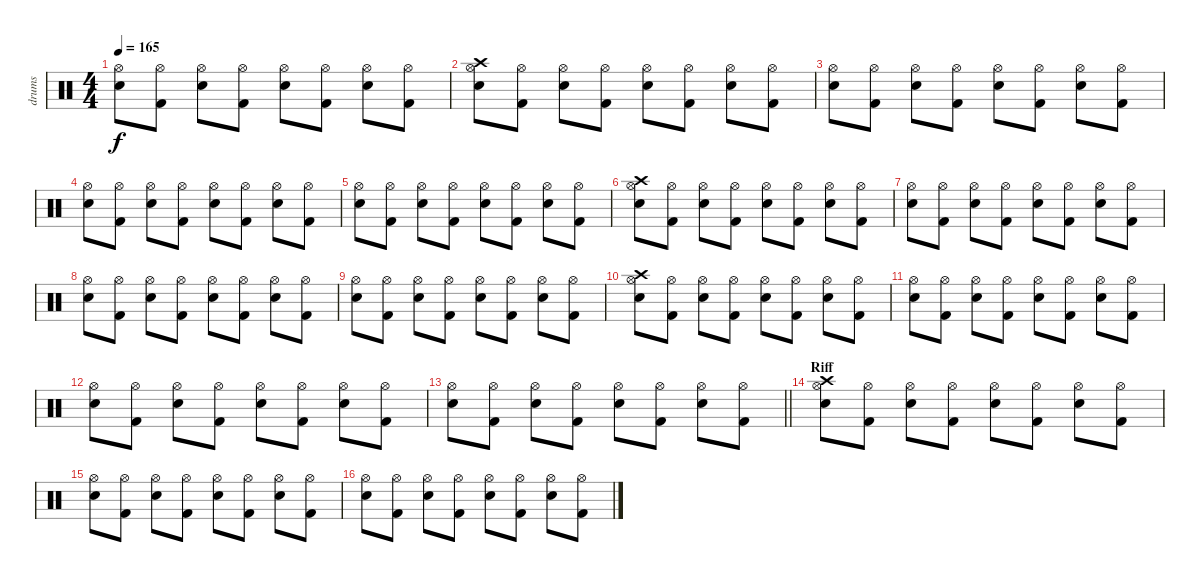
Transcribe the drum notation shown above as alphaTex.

\track ("drums" "drums") {instrument percussion}
\staff {score}
\articulation defaults
\ts (4 4)
\tempo 165
\clef neutral
\ks c
("Hi-Hat (open)" "Electric Snare (hit)").8{dy f} ("Hi-Hat (open)" "Kick (hit) 2").8 ("Hi-Hat (open)" "Electric Snare (hit)").8 ("Hi-Hat (open)" "Kick (hit) 2").8 ("Hi-Hat (open)" "Electric Snare (hit)").8 ("Hi-Hat (open)" "Kick (hit) 2").8 ("Hi-Hat (open)" "Electric Snare (hit)").8 ("Hi-Hat (open)" "Kick (hit) 2").8 |
("Crash high (hit)" "Hi-Hat (open)" "Electric Snare (hit)").8 ("Hi-Hat (open)" "Kick (hit) 2").8 ("Hi-Hat (open)" "Electric Snare (hit)").8 ("Hi-Hat (open)" "Kick (hit) 2").8 ("Hi-Hat (open)" "Electric Snare (hit)").8 ("Hi-Hat (open)" "Kick (hit) 2").8 ("Hi-Hat (open)" "Electric Snare (hit)").8 ("Hi-Hat (open)" "Kick (hit) 2").8 |
("Hi-Hat (open)" "Electric Snare (hit)").8 ("Hi-Hat (open)" "Kick (hit) 2").8 ("Hi-Hat (open)" "Electric Snare (hit)").8 ("Hi-Hat (open)" "Kick (hit) 2").8 ("Hi-Hat (open)" "Electric Snare (hit)").8 ("Hi-Hat (open)" "Kick (hit) 2").8 ("Hi-Hat (open)" "Electric Snare (hit)").8 ("Hi-Hat (open)" "Kick (hit) 2").8 |
("Hi-Hat (open)" "Electric Snare (hit)").8 ("Hi-Hat (open)" "Kick (hit) 2").8 ("Hi-Hat (open)" "Electric Snare (hit)").8 ("Hi-Hat (open)" "Kick (hit) 2").8 ("Hi-Hat (open)" "Electric Snare (hit)").8 ("Hi-Hat (open)" "Kick (hit) 2").8 ("Hi-Hat (open)" "Electric Snare (hit)").8 ("Hi-Hat (open)" "Kick (hit) 2").8 |
("Hi-Hat (open)" "Electric Snare (hit)").8 ("Hi-Hat (open)" "Kick (hit) 2").8 ("Hi-Hat (open)" "Electric Snare (hit)").8 ("Hi-Hat (open)" "Kick (hit) 2").8 ("Hi-Hat (open)" "Electric Snare (hit)").8 ("Hi-Hat (open)" "Kick (hit) 2").8 ("Hi-Hat (open)" "Electric Snare (hit)").8 ("Hi-Hat (open)" "Kick (hit) 2").8 |
("Crash high (hit)" "Hi-Hat (open)" "Electric Snare (hit)").8 ("Hi-Hat (open)" "Kick (hit) 2").8 ("Hi-Hat (open)" "Electric Snare (hit)").8 ("Hi-Hat (open)" "Kick (hit) 2").8 ("Hi-Hat (open)" "Electric Snare (hit)").8 ("Hi-Hat (open)" "Kick (hit) 2").8 ("Hi-Hat (open)" "Electric Snare (hit)").8 ("Hi-Hat (open)" "Kick (hit) 2").8 |
("Hi-Hat (open)" "Electric Snare (hit)").8 ("Hi-Hat (open)" "Kick (hit) 2").8 ("Hi-Hat (open)" "Electric Snare (hit)").8 ("Hi-Hat (open)" "Kick (hit) 2").8 ("Hi-Hat (open)" "Electric Snare (hit)").8 ("Hi-Hat (open)" "Kick (hit) 2").8 ("Hi-Hat (open)" "Electric Snare (hit)").8 ("Hi-Hat (open)" "Kick (hit) 2").8 |
("Hi-Hat (open)" "Electric Snare (hit)").8 ("Hi-Hat (open)" "Kick (hit) 2").8 ("Hi-Hat (open)" "Electric Snare (hit)").8 ("Hi-Hat (open)" "Kick (hit) 2").8 ("Hi-Hat (open)" "Electric Snare (hit)").8 ("Hi-Hat (open)" "Kick (hit) 2").8 ("Hi-Hat (open)" "Electric Snare (hit)").8 ("Hi-Hat (open)" "Kick (hit) 2").8 |
("Hi-Hat (open)" "Electric Snare (hit)").8 ("Hi-Hat (open)" "Kick (hit) 2").8 ("Hi-Hat (open)" "Electric Snare (hit)").8 ("Hi-Hat (open)" "Kick (hit) 2").8 ("Hi-Hat (open)" "Electric Snare (hit)").8 ("Hi-Hat (open)" "Kick (hit) 2").8 ("Hi-Hat (open)" "Electric Snare (hit)").8 ("Hi-Hat (open)" "Kick (hit) 2").8 |
("Crash high (hit)" "Hi-Hat (open)" "Electric Snare (hit)").8 ("Hi-Hat (open)" "Kick (hit) 2").8 ("Hi-Hat (open)" "Electric Snare (hit)").8 ("Hi-Hat (open)" "Kick (hit) 2").8 ("Hi-Hat (open)" "Electric Snare (hit)").8 ("Hi-Hat (open)" "Kick (hit) 2").8 ("Hi-Hat (open)" "Electric Snare (hit)").8 ("Hi-Hat (open)" "Kick (hit) 2").8 |
("Hi-Hat (open)" "Electric Snare (hit)").8 ("Hi-Hat (open)" "Kick (hit) 2").8 ("Hi-Hat (open)" "Electric Snare (hit)").8 ("Hi-Hat (open)" "Kick (hit) 2").8 ("Hi-Hat (open)" "Electric Snare (hit)").8 ("Hi-Hat (open)" "Kick (hit) 2").8 ("Hi-Hat (open)" "Electric Snare (hit)").8 ("Hi-Hat (open)" "Kick (hit) 2").8 |
("Hi-Hat (open)" "Electric Snare (hit)").8 ("Hi-Hat (open)" "Kick (hit) 2").8 ("Hi-Hat (open)" "Electric Snare (hit)").8 ("Hi-Hat (open)" "Kick (hit) 2").8 ("Hi-Hat (open)" "Electric Snare (hit)").8 ("Hi-Hat (open)" "Kick (hit) 2").8 ("Hi-Hat (open)" "Electric Snare (hit)").8 ("Hi-Hat (open)" "Kick (hit) 2").8 |
\barLineRight lightlight
("Hi-Hat (open)" "Electric Snare (hit)").8 ("Hi-Hat (open)" "Kick (hit) 2").8 ("Hi-Hat (open)" "Electric Snare (hit)").8 ("Hi-Hat (open)" "Kick (hit) 2").8 ("Hi-Hat (open)" "Electric Snare (hit)").8 ("Hi-Hat (open)" "Kick (hit) 2").8 ("Hi-Hat (open)" "Electric Snare (hit)").8 ("Hi-Hat (open)" "Kick (hit) 2").8 |
\section ("" "Riff")
("Crash high (hit)" "Hi-Hat (open)" "Electric Snare (hit)").8 ("Hi-Hat (open)" "Kick (hit) 2").8 ("Hi-Hat (open)" "Electric Snare (hit)").8 ("Hi-Hat (open)" "Kick (hit) 2").8 ("Hi-Hat (open)" "Electric Snare (hit)").8 ("Hi-Hat (open)" "Kick (hit) 2").8 ("Hi-Hat (open)" "Electric Snare (hit)").8 ("Hi-Hat (open)" "Kick (hit) 2").8 |
("Hi-Hat (open)" "Electric Snare (hit)").8 ("Hi-Hat (open)" "Kick (hit) 2").8 ("Hi-Hat (open)" "Electric Snare (hit)").8 ("Hi-Hat (open)" "Kick (hit) 2").8 ("Hi-Hat (open)" "Electric Snare (hit)").8 ("Hi-Hat (open)" "Kick (hit) 2").8 ("Hi-Hat (open)" "Electric Snare (hit)").8 ("Hi-Hat (open)" "Kick (hit) 2").8 |
("Hi-Hat (open)" "Electric Snare (hit)").8 ("Hi-Hat (open)" "Kick (hit) 2").8 ("Hi-Hat (open)" "Electric Snare (hit)").8 ("Hi-Hat (open)" "Kick (hit) 2").8 ("Hi-Hat (open)" "Electric Snare (hit)").8 ("Hi-Hat (open)" "Kick (hit) 2").8 ("Hi-Hat (open)" "Electric Snare (hit)").8 ("Hi-Hat (open)" "Kick (hit) 2").8
